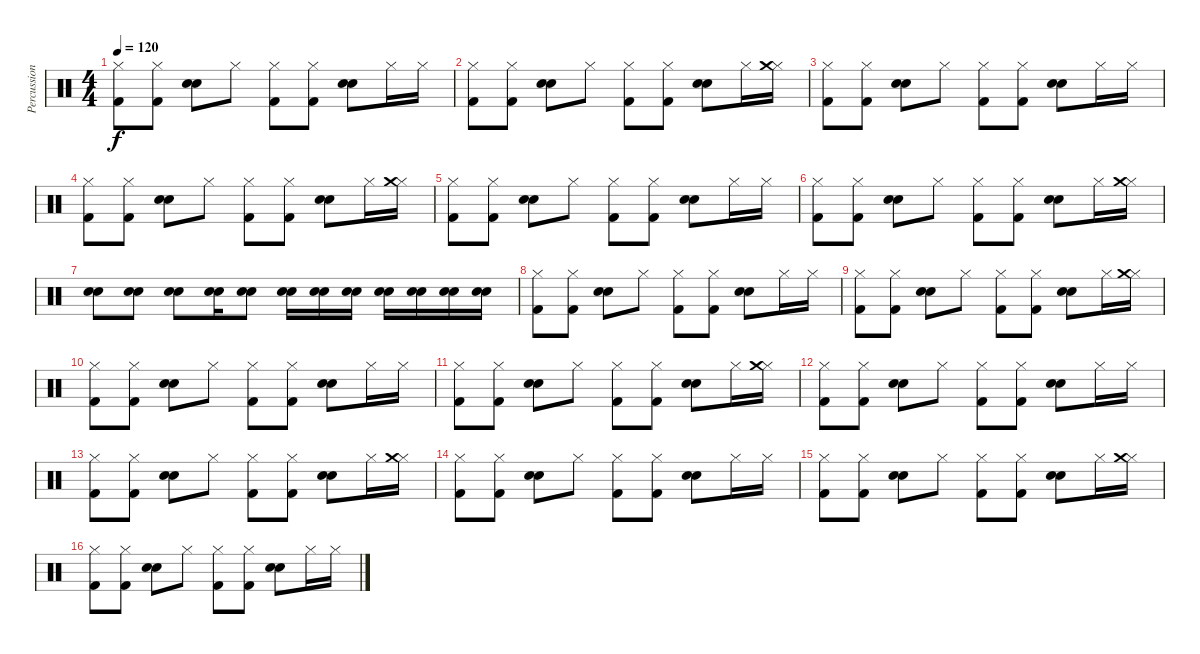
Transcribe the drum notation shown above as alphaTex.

\track ("Percussions" "Percussion") {instrument percussion}
\staff {score}
\articulation defaults
\ts (4 4)
\tempo 120
\clef neutral
\ks c
("Kick (hit) 2" "Hi-Hat (closed)").8{dy f} ("Kick (hit) 2" "Hi-Hat (closed)").8 ("Hand Clap (hit)" "Electric Snare (hit)").8 "Hi-Hat (closed)".8 ("Kick (hit) 2" "Hi-Hat (closed)").8 ("Kick (hit) 2" "Hi-Hat (closed)").8 ("Hand Clap (hit)" "Electric Snare (hit)").8 "Hi-Hat (closed)".16 "Hi-Hat (closed)".16 |
("Kick (hit) 2" "Hi-Hat (closed)").8 ("Kick (hit) 2" "Hi-Hat (closed)").8 ("Hand Clap (hit)" "Electric Snare (hit)").8 "Hi-Hat (closed)".8 ("Kick (hit) 2" "Hi-Hat (closed)").8 ("Kick (hit) 2" "Hi-Hat (closed)").8 ("Hand Clap (hit)" "Electric Snare (hit)").8 "Hi-Hat (closed)".16 ("Hi-Hat (closed)" "Crash medium (hit)").16 |
("Kick (hit) 2" "Hi-Hat (closed)").8 ("Kick (hit) 2" "Hi-Hat (closed)").8 ("Hand Clap (hit)" "Electric Snare (hit)").8 "Hi-Hat (closed)".8 ("Kick (hit) 2" "Hi-Hat (closed)").8 ("Kick (hit) 2" "Hi-Hat (closed)").8 ("Hand Clap (hit)" "Electric Snare (hit)").8 "Hi-Hat (closed)".16 "Hi-Hat (closed)".16 |
("Kick (hit) 2" "Hi-Hat (closed)").8 ("Kick (hit) 2" "Hi-Hat (closed)").8 ("Hand Clap (hit)" "Electric Snare (hit)").8 "Hi-Hat (closed)".8 ("Kick (hit) 2" "Hi-Hat (closed)").8 ("Kick (hit) 2" "Hi-Hat (closed)").8 ("Hand Clap (hit)" "Electric Snare (hit)").8 "Hi-Hat (closed)".16 ("Hi-Hat (closed)" "Crash medium (hit)").16 |
("Kick (hit) 2" "Hi-Hat (closed)").8 ("Kick (hit) 2" "Hi-Hat (closed)").8 ("Hand Clap (hit)" "Electric Snare (hit)").8 "Hi-Hat (closed)".8 ("Kick (hit) 2" "Hi-Hat (closed)").8 ("Kick (hit) 2" "Hi-Hat (closed)").8 ("Hand Clap (hit)" "Electric Snare (hit)").8 "Hi-Hat (closed)".16 "Hi-Hat (closed)".16 |
("Kick (hit) 2" "Hi-Hat (closed)").8 ("Kick (hit) 2" "Hi-Hat (closed)").8 ("Hand Clap (hit)" "Electric Snare (hit)").8 "Hi-Hat (closed)".8 ("Kick (hit) 2" "Hi-Hat (closed)").8 ("Kick (hit) 2" "Hi-Hat (closed)").8 ("Hand Clap (hit)" "Electric Snare (hit)").8 "Hi-Hat (closed)".16 ("Hi-Hat (closed)" "Crash medium (hit)").16 |
("Hand Clap (hit)" "Electric Snare (hit)").8 ("Hand Clap (hit)" "Electric Snare (hit)").8 ("Hand Clap (hit)" "Electric Snare (hit)").8 ("Hand Clap (hit)" "Electric Snare (hit)").16 ("Hand Clap (hit)" "Electric Snare (hit)").8 ("Hand Clap (hit)" "Electric Snare (hit)").16 ("Hand Clap (hit)" "Electric Snare (hit)").16 ("Hand Clap (hit)" "Electric Snare (hit)").16 ("Hand Clap (hit)" "Electric Snare (hit)").16 ("Hand Clap (hit)" "Electric Snare (hit)").16 ("Hand Clap (hit)" "Electric Snare (hit)").16 ("Hand Clap (hit)" "Electric Snare (hit)").16 |
("Kick (hit) 2" "Hi-Hat (closed)").8 ("Kick (hit) 2" "Hi-Hat (closed)").8 ("Hand Clap (hit)" "Electric Snare (hit)").8 "Hi-Hat (closed)".8 ("Kick (hit) 2" "Hi-Hat (closed)").8 ("Kick (hit) 2" "Hi-Hat (closed)").8 ("Hand Clap (hit)" "Electric Snare (hit)").8 "Hi-Hat (closed)".16 "Hi-Hat (closed)".16 |
("Kick (hit) 2" "Hi-Hat (closed)").8 ("Kick (hit) 2" "Hi-Hat (closed)").8 ("Hand Clap (hit)" "Electric Snare (hit)").8 "Hi-Hat (closed)".8 ("Kick (hit) 2" "Hi-Hat (closed)").8 ("Kick (hit) 2" "Hi-Hat (closed)").8 ("Hand Clap (hit)" "Electric Snare (hit)").8 "Hi-Hat (closed)".16 ("Hi-Hat (closed)" "Crash medium (hit)").16 |
("Kick (hit) 2" "Hi-Hat (closed)").8 ("Kick (hit) 2" "Hi-Hat (closed)").8 ("Hand Clap (hit)" "Electric Snare (hit)").8 "Hi-Hat (closed)".8 ("Kick (hit) 2" "Hi-Hat (closed)").8 ("Kick (hit) 2" "Hi-Hat (closed)").8 ("Hand Clap (hit)" "Electric Snare (hit)").8 "Hi-Hat (closed)".16 "Hi-Hat (closed)".16 |
("Kick (hit) 2" "Hi-Hat (closed)").8 ("Kick (hit) 2" "Hi-Hat (closed)").8 ("Hand Clap (hit)" "Electric Snare (hit)").8 "Hi-Hat (closed)".8 ("Kick (hit) 2" "Hi-Hat (closed)").8 ("Kick (hit) 2" "Hi-Hat (closed)").8 ("Hand Clap (hit)" "Electric Snare (hit)").8 "Hi-Hat (closed)".16 ("Hi-Hat (closed)" "Crash medium (hit)").16 |
("Kick (hit) 2" "Hi-Hat (closed)").8 ("Kick (hit) 2" "Hi-Hat (closed)").8 ("Hand Clap (hit)" "Electric Snare (hit)").8 "Hi-Hat (closed)".8 ("Kick (hit) 2" "Hi-Hat (closed)").8 ("Kick (hit) 2" "Hi-Hat (closed)").8 ("Hand Clap (hit)" "Electric Snare (hit)").8 "Hi-Hat (closed)".16 "Hi-Hat (closed)".16 |
("Kick (hit) 2" "Hi-Hat (closed)").8 ("Kick (hit) 2" "Hi-Hat (closed)").8 ("Hand Clap (hit)" "Electric Snare (hit)").8 "Hi-Hat (closed)".8 ("Kick (hit) 2" "Hi-Hat (closed)").8 ("Kick (hit) 2" "Hi-Hat (closed)").8 ("Hand Clap (hit)" "Electric Snare (hit)").8 "Hi-Hat (closed)".16 ("Hi-Hat (closed)" "Crash medium (hit)").16 |
("Kick (hit) 2" "Hi-Hat (closed)").8 ("Kick (hit) 2" "Hi-Hat (closed)").8 ("Hand Clap (hit)" "Electric Snare (hit)").8 "Hi-Hat (closed)".8 ("Kick (hit) 2" "Hi-Hat (closed)").8 ("Kick (hit) 2" "Hi-Hat (closed)").8 ("Hand Clap (hit)" "Electric Snare (hit)").8 "Hi-Hat (closed)".16 "Hi-Hat (closed)".16 |
("Kick (hit) 2" "Hi-Hat (closed)").8 ("Kick (hit) 2" "Hi-Hat (closed)").8 ("Hand Clap (hit)" "Electric Snare (hit)").8 "Hi-Hat (closed)".8 ("Kick (hit) 2" "Hi-Hat (closed)").8 ("Kick (hit) 2" "Hi-Hat (closed)").8 ("Hand Clap (hit)" "Electric Snare (hit)").8 "Hi-Hat (closed)".16 ("Hi-Hat (closed)" "Crash medium (hit)").16 |
("Kick (hit) 2" "Hi-Hat (closed)").8 ("Kick (hit) 2" "Hi-Hat (closed)").8 ("Hand Clap (hit)" "Electric Snare (hit)").8 "Hi-Hat (closed)".8 ("Kick (hit) 2" "Hi-Hat (closed)").8 ("Kick (hit) 2" "Hi-Hat (closed)").8 ("Hand Clap (hit)" "Electric Snare (hit)").8 "Hi-Hat (closed)".16 "Hi-Hat (closed)".16
